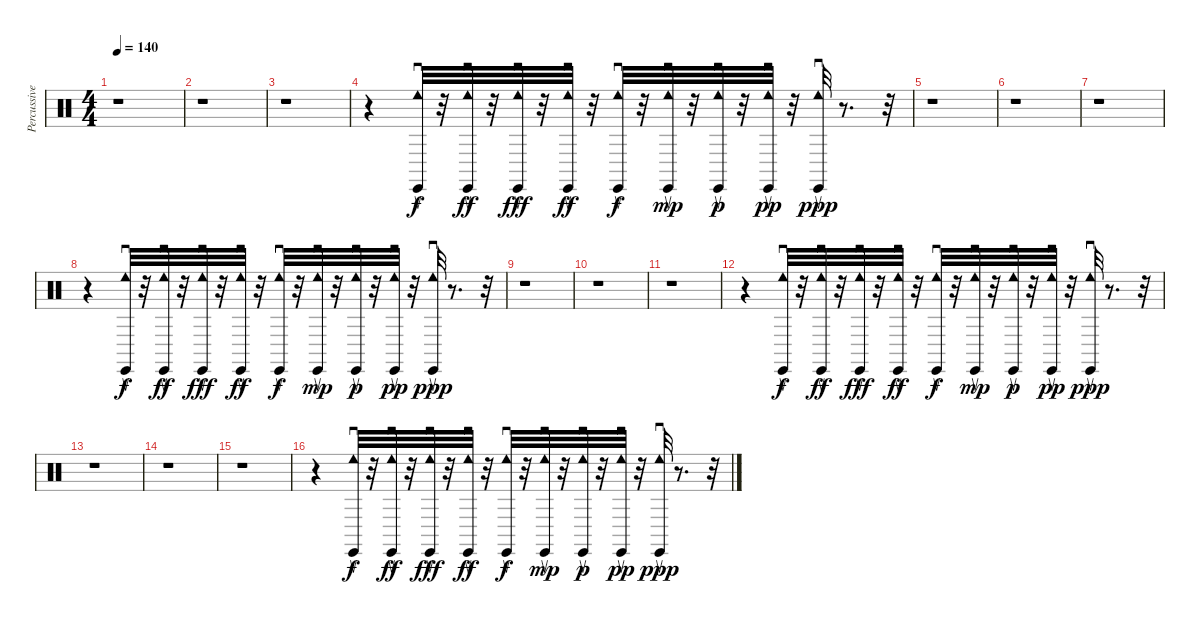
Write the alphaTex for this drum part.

\track ("Percussive Organ" "Percussive") {instrument percussion}
\staff {score}
\articulation defaults
\ts (4 4)
\tempo 140
\clef neutral
\ks c
r.1{dy ppp} |
r.1 |
r.1 |
r.4 ("Cabasa (return)" "Tambourine (roll)").32{dy f} r.32 ("Tambourine (roll)" "Cabasa (return)").32{dy ff} r.32 ("Tambourine (roll)" "Cabasa (return)").32{dy fff} r.32 ("Tambourine (roll)" "Cabasa (return)").32{dy ff} r.32 ("Tambourine (roll)" "Cabasa (return)").32{dy f} r.32 ("Tambourine (roll)" "Cabasa (return)").32{dy mp} r.32 ("Tambourine (roll)" "Cabasa (return)").32{dy p} r.32 ("Tambourine (roll)" "Cabasa (return)").32{dy pp} r.32 ("Cabasa (return)" "Tambourine (roll)").32{dy ppp} r.8{d} r.32 |
r.1 |
r.1 |
r.1 |
r.4 ("Cabasa (return)" "Tambourine (roll)").32{dy f} r.32 ("Tambourine (roll)" "Cabasa (return)").32{dy ff} r.32 ("Tambourine (roll)" "Cabasa (return)").32{dy fff} r.32 ("Tambourine (roll)" "Cabasa (return)").32{dy ff} r.32 ("Tambourine (roll)" "Cabasa (return)").32{dy f} r.32 ("Tambourine (roll)" "Cabasa (return)").32{dy mp} r.32 ("Tambourine (roll)" "Cabasa (return)").32{dy p} r.32 ("Tambourine (roll)" "Cabasa (return)").32{dy pp} r.32 ("Cabasa (return)" "Tambourine (roll)").32{dy ppp} r.8{d} r.32 |
r.1 |
r.1 |
r.1 |
r.4 ("Cabasa (return)" "Tambourine (roll)").32{dy f} r.32 ("Tambourine (roll)" "Cabasa (return)").32{dy ff} r.32 ("Tambourine (roll)" "Cabasa (return)").32{dy fff} r.32 ("Tambourine (roll)" "Cabasa (return)").32{dy ff} r.32 ("Tambourine (roll)" "Cabasa (return)").32{dy f} r.32 ("Tambourine (roll)" "Cabasa (return)").32{dy mp} r.32 ("Tambourine (roll)" "Cabasa (return)").32{dy p} r.32 ("Tambourine (roll)" "Cabasa (return)").32{dy pp} r.32 ("Cabasa (return)" "Tambourine (roll)").32{dy ppp} r.8{d} r.32 |
r.1 |
r.1 |
r.1 |
r.4 ("Cabasa (return)" "Tambourine (roll)").32{dy f} r.32 ("Tambourine (roll)" "Cabasa (return)").32{dy ff} r.32 ("Tambourine (roll)" "Cabasa (return)").32{dy fff} r.32 ("Tambourine (roll)" "Cabasa (return)").32{dy ff} r.32 ("Tambourine (roll)" "Cabasa (return)").32{dy f} r.32 ("Tambourine (roll)" "Cabasa (return)").32{dy mp} r.32 ("Tambourine (roll)" "Cabasa (return)").32{dy p} r.32 ("Tambourine (roll)" "Cabasa (return)").32{dy pp} r.32 ("Cabasa (return)" "Tambourine (roll)").32{dy ppp} r.8{d} r.32
